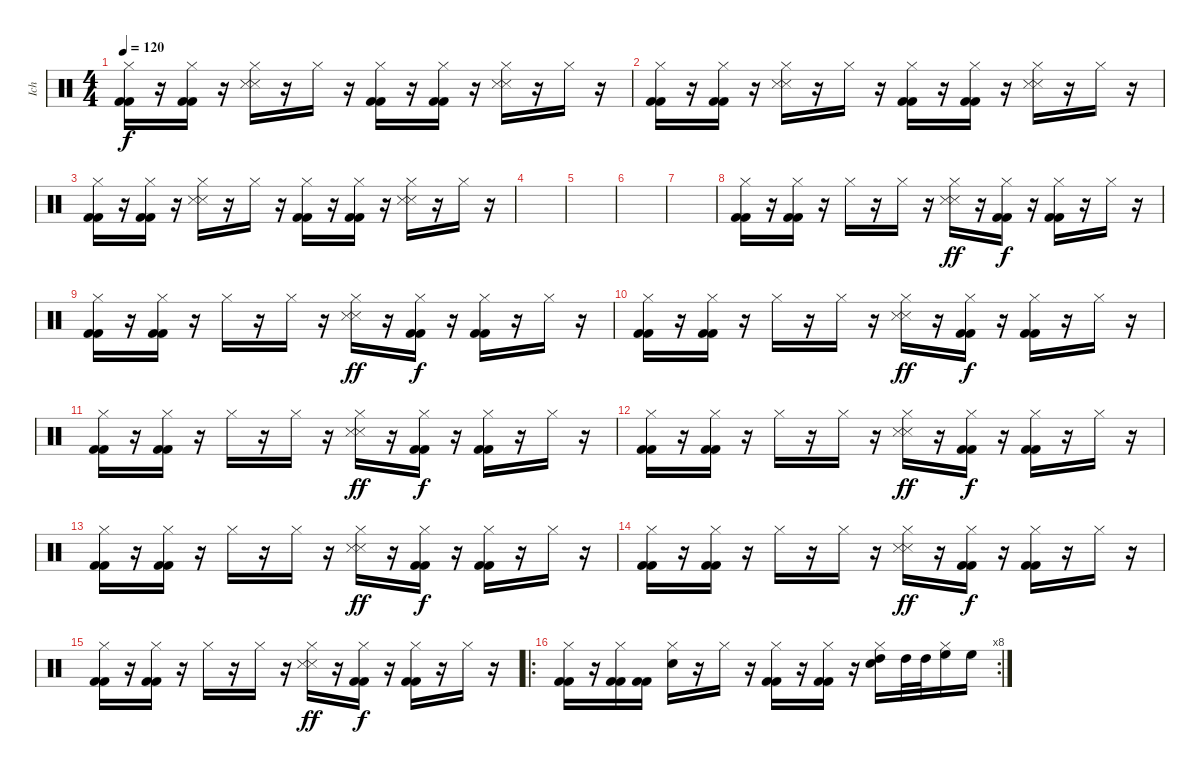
\track ("Ich" "Ich") {instrument percussion}
\staff {score}
\articulation defaults
\ts (4 4)
\tempo 120
\clef neutral
\ks c
("Hi-Hat (closed)" "Kick (hit) 2" "Kick (hit) 2").16{dy f} r.16 ("Hi-Hat (closed)" "Kick (hit) 2" "Kick (hit) 2").16 r.16 ("Hi-Hat (closed)" "Snare (side stick) 3" "Snare (side stick) 3").16 r.16 "Hi-Hat (closed)".16 r.16 ("Hi-Hat (closed)" "Kick (hit) 2" "Kick (hit) 2").16 r.16 ("Hi-Hat (closed)" "Kick (hit) 2" "Kick (hit) 2").16 r.16 ("Hi-Hat (closed)" "Snare (side stick) 3" "Snare (side stick) 3").16 r.16 "Hi-Hat (closed)".16 r.16 |
("Hi-Hat (closed)" "Kick (hit) 2" "Kick (hit) 2").16 r.16 ("Hi-Hat (closed)" "Kick (hit) 2" "Kick (hit) 2").16 r.16 ("Hi-Hat (closed)" "Snare (side stick) 3" "Snare (side stick) 3").16 r.16 "Hi-Hat (closed)".16 r.16 ("Hi-Hat (closed)" "Kick (hit) 2" "Kick (hit) 2").16 r.16 ("Hi-Hat (closed)" "Kick (hit) 2" "Kick (hit) 2").16 r.16 ("Hi-Hat (closed)" "Snare (side stick) 3" "Snare (side stick) 3").16 r.16 "Hi-Hat (closed)".16 r.16 |
("Hi-Hat (closed)" "Kick (hit) 2" "Kick (hit) 2").16 r.16 ("Hi-Hat (closed)" "Kick (hit) 2" "Kick (hit) 2").16 r.16 ("Hi-Hat (closed)" "Snare (side stick) 3" "Snare (side stick) 3").16 r.16 "Hi-Hat (closed)".16 r.16 ("Hi-Hat (closed)" "Kick (hit) 2" "Kick (hit) 2").16 r.16 ("Hi-Hat (closed)" "Kick (hit) 2" "Kick (hit) 2").16 r.16 ("Hi-Hat (closed)" "Snare (side stick) 3" "Snare (side stick) 3").16 r.16 "Hi-Hat (closed)".16 r.16 |
|
|
|
|
("Hi-Hat (closed)" "Kick (hit) 2" "Kick (hit) 2").16 r.16 ("Hi-Hat (closed)" "Kick (hit) 2" "Kick (hit) 2").16 r.16 "Hi-Hat (closed)".16 r.16 "Hi-Hat (closed)".16 r.16 ("Hi-Hat (closed)" "Snare (side stick) 3" "Snare (side stick) 3").16{dy ff} r.16 ("Hi-Hat (closed)" "Kick (hit) 2" "Kick (hit) 2").16{dy f} r.16 ("Hi-Hat (closed)" "Kick (hit) 2" "Kick (hit) 2").16 r.16 "Hi-Hat (closed)".16 r.16 |
("Hi-Hat (closed)" "Kick (hit) 2" "Kick (hit) 2").16 r.16 ("Hi-Hat (closed)" "Kick (hit) 2" "Kick (hit) 2").16 r.16 "Hi-Hat (closed)".16 r.16 "Hi-Hat (closed)".16 r.16 ("Hi-Hat (closed)" "Snare (side stick) 3" "Snare (side stick) 3").16{dy ff} r.16 ("Hi-Hat (closed)" "Kick (hit) 2" "Kick (hit) 2").16{dy f} r.16 ("Hi-Hat (closed)" "Kick (hit) 2" "Kick (hit) 2").16 r.16 "Hi-Hat (closed)".16 r.16 |
("Hi-Hat (closed)" "Kick (hit) 2" "Kick (hit) 2").16 r.16 ("Hi-Hat (closed)" "Kick (hit) 2" "Kick (hit) 2").16 r.16 "Hi-Hat (closed)".16 r.16 "Hi-Hat (closed)".16 r.16 ("Hi-Hat (closed)" "Snare (side stick) 3" "Snare (side stick) 3").16{dy ff} r.16 ("Hi-Hat (closed)" "Kick (hit) 2" "Kick (hit) 2").16{dy f} r.16 ("Hi-Hat (closed)" "Kick (hit) 2" "Kick (hit) 2").16 r.16 "Hi-Hat (closed)".16 r.16 |
("Hi-Hat (closed)" "Kick (hit) 2" "Kick (hit) 2").16 r.16 ("Hi-Hat (closed)" "Kick (hit) 2" "Kick (hit) 2").16 r.16 "Hi-Hat (closed)".16 r.16 "Hi-Hat (closed)".16 r.16 ("Hi-Hat (closed)" "Snare (side stick) 3" "Snare (side stick) 3").16{dy ff} r.16 ("Hi-Hat (closed)" "Kick (hit) 2" "Kick (hit) 2").16{dy f} r.16 ("Hi-Hat (closed)" "Kick (hit) 2" "Kick (hit) 2").16 r.16 "Hi-Hat (closed)".16 r.16 |
("Hi-Hat (closed)" "Kick (hit) 2" "Kick (hit) 2").16 r.16 ("Hi-Hat (closed)" "Kick (hit) 2" "Kick (hit) 2").16 r.16 "Hi-Hat (closed)".16 r.16 "Hi-Hat (closed)".16 r.16 ("Hi-Hat (closed)" "Snare (side stick) 3" "Snare (side stick) 3").16{dy ff} r.16 ("Hi-Hat (closed)" "Kick (hit) 2" "Kick (hit) 2").16{dy f} r.16 ("Hi-Hat (closed)" "Kick (hit) 2" "Kick (hit) 2").16 r.16 "Hi-Hat (closed)".16 r.16 |
("Hi-Hat (closed)" "Kick (hit) 2" "Kick (hit) 2").16 r.16 ("Hi-Hat (closed)" "Kick (hit) 2" "Kick (hit) 2").16 r.16 "Hi-Hat (closed)".16 r.16 "Hi-Hat (closed)".16 r.16 ("Hi-Hat (closed)" "Snare (side stick) 3" "Snare (side stick) 3").16{dy ff} r.16 ("Hi-Hat (closed)" "Kick (hit) 2" "Kick (hit) 2").16{dy f} r.16 ("Hi-Hat (closed)" "Kick (hit) 2" "Kick (hit) 2").16 r.16 "Hi-Hat (closed)".16 r.16 |
("Hi-Hat (closed)" "Kick (hit) 2" "Kick (hit) 2").16 r.16 ("Hi-Hat (closed)" "Kick (hit) 2" "Kick (hit) 2").16 r.16 "Hi-Hat (closed)".16 r.16 "Hi-Hat (closed)".16 r.16 ("Hi-Hat (closed)" "Snare (side stick) 3" "Snare (side stick) 3").16{dy ff} r.16 ("Hi-Hat (closed)" "Kick (hit) 2" "Kick (hit) 2").16{dy f} r.16 ("Hi-Hat (closed)" "Kick (hit) 2" "Kick (hit) 2").16 r.16 "Hi-Hat (closed)".16 r.16 |
("Hi-Hat (closed)" "Kick (hit) 2" "Kick (hit) 2").16 r.16 ("Hi-Hat (closed)" "Kick (hit) 2" "Kick (hit) 2").16 r.16 "Hi-Hat (closed)".16 r.16 "Hi-Hat (closed)".16 r.16 ("Hi-Hat (closed)" "Snare (side stick) 3" "Snare (side stick) 3").16{dy ff} r.16 ("Hi-Hat (closed)" "Kick (hit) 2" "Kick (hit) 2").16{dy f} r.16 ("Hi-Hat (closed)" "Kick (hit) 2" "Kick (hit) 2").16 r.16 "Hi-Hat (closed)".16 r.16 |
\ro
\rc 8
("Hi-Hat (closed)" "Kick (hit) 2" "Kick (hit) 2").16 r.16 ("Hi-Hat (closed)" "Kick (hit) 2" "Kick (hit) 2").16 ("Kick (hit) 2" "Kick (hit) 2").16 ("Hi-Hat (closed)" "Snare (hit) 2").16 r.16 "Hi-Hat (closed)".16 r.16 ("Hi-Hat (closed)" "Kick (hit) 2" "Kick (hit) 2").16 r.16 ("Hi-Hat (closed)" "Kick (hit) 2" "Kick (hit) 2").16 r.16 ("Hi-Hat (closed)" "High Tom (hit)" "Snare (hit) 2").16 "High Tom (hit)".32 "High Tom (hit)".32 ("Hi-Hat (closed)" "High Floor Tom (hit)").16 "High Floor Tom (hit)".16
